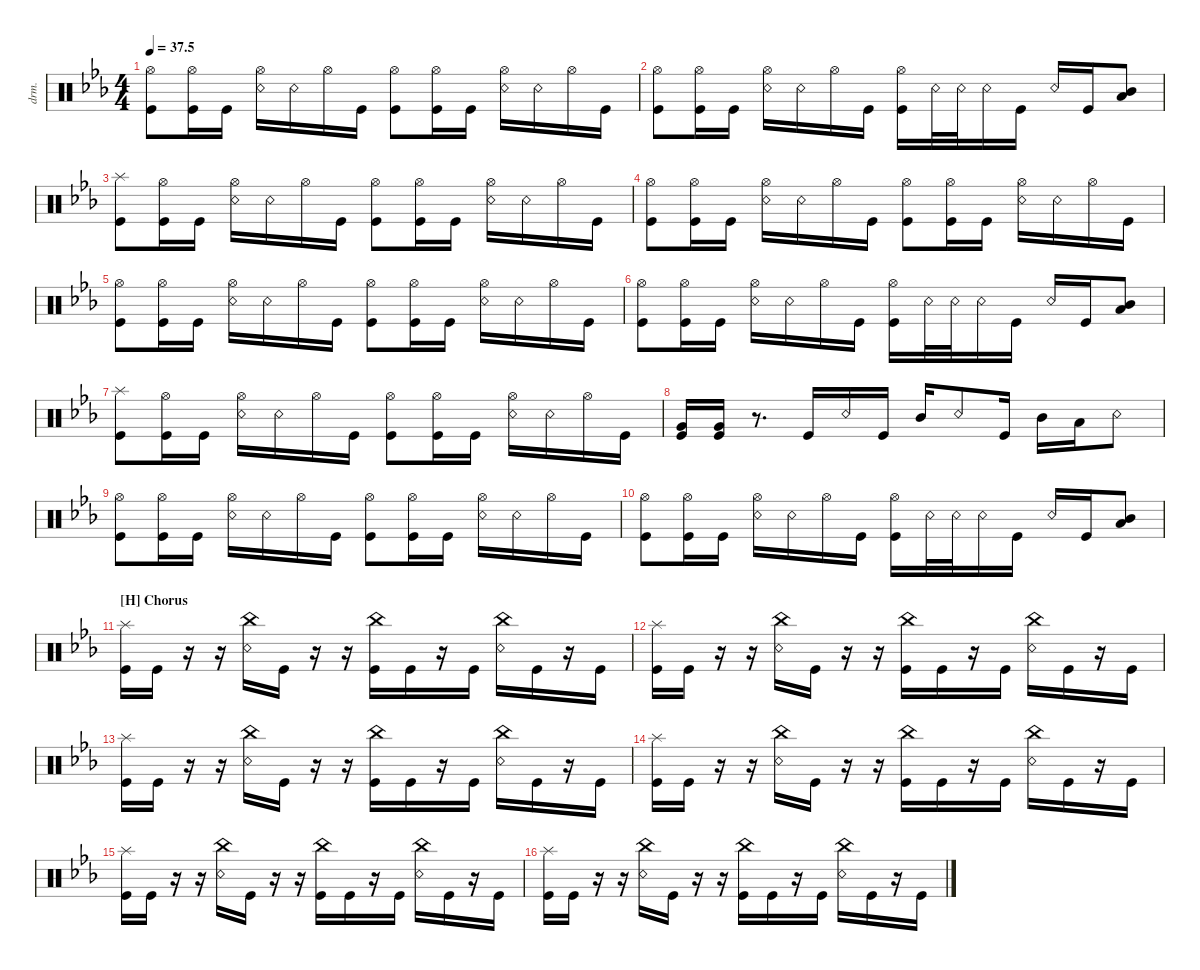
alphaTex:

\defaultSystemsLayout 4
\hideDynamics
\bracketExtendMode nobrackets
\otherSystemsTrackNameOrientation horizontal
\track ("Drumkit" "drm.") {instrument percussion}
\staff {score}
\articulation defaults
\ts (4 4)
\tempo
37.5
\accidentals auto
\clef neutral
\ottava regular
\simile none
\ks cminor
("Kick (hit)" "Hi-Hat (open)").8{dy ff} ("Kick (hit)" "Hi-Hat (open)").16 "Kick (hit)".16 ("Snare (rim shot)" "Hi-Hat (open)").16 "Snare (rim shot)".16 "Hi-Hat (open)".16 "Kick (hit)".16 ("Kick (hit)" "Hi-Hat (open)").8 ("Kick (hit)" "Hi-Hat (open)").16 "Kick (hit)".16 ("Snare (rim shot)" "Hi-Hat (open)").16 "Snare (rim shot)".16 "Hi-Hat (open)".16 "Kick (hit)".16 |
("Kick (hit)" "Hi-Hat (open)").8 ("Kick (hit)" "Hi-Hat (open)").16 "Kick (hit)".16 ("Snare (rim shot)" "Hi-Hat (open)").16 "Snare (rim shot)".16 "Hi-Hat (open)".16 "Kick (hit)".16 ("Kick (hit)" "Hi-Hat (open)").16 "Snare (rim shot)".32 "Snare (rim shot)".32 "Snare (rim shot)".16 "Kick (hit)".16 "Snare (rim shot)".16 "Kick (hit)".16 ("Mid Tom (hit)" "Low Tom (hit)").8 |
("Splash (hit)" "Kick (hit)").8 ("Kick (hit)" "Hi-Hat (open)").16 "Kick (hit)".16 ("Snare (rim shot)" "Hi-Hat (open)").16 "Snare (rim shot)".16 "Hi-Hat (open)".16 "Kick (hit)".16 ("Kick (hit)" "Hi-Hat (open)").8 ("Kick (hit)" "Hi-Hat (open)").16 "Kick (hit)".16 ("Snare (rim shot)" "Hi-Hat (open)").16 "Snare (rim shot)".16 "Hi-Hat (open)".16 "Kick (hit)".16 |
("Kick (hit)" "Hi-Hat (open)").8 ("Kick (hit)" "Hi-Hat (open)").16 "Kick (hit)".16 ("Snare (rim shot)" "Hi-Hat (open)").16 "Snare (rim shot)".16 "Hi-Hat (open)".16 "Kick (hit)".16 ("Kick (hit)" "Hi-Hat (open)").8 ("Kick (hit)" "Hi-Hat (open)").16 "Kick (hit)".16 ("Snare (rim shot)" "Hi-Hat (open)").16 "Snare (rim shot)".16 "Hi-Hat (open)".16 "Kick (hit)".16 |
("Kick (hit)" "Hi-Hat (open)").8 ("Kick (hit)" "Hi-Hat (open)").16 "Kick (hit)".16 ("Snare (rim shot)" "Hi-Hat (open)").16 "Snare (rim shot)".16 "Hi-Hat (open)".16 "Kick (hit)".16 ("Kick (hit)" "Hi-Hat (open)").8 ("Kick (hit)" "Hi-Hat (open)").16 "Kick (hit)".16 ("Snare (rim shot)" "Hi-Hat (open)").16 "Snare (rim shot)".16 "Hi-Hat (open)".16 "Kick (hit)".16 |
("Kick (hit)" "Hi-Hat (open)").8 ("Kick (hit)" "Hi-Hat (open)").16 "Kick (hit)".16 ("Snare (rim shot)" "Hi-Hat (open)").16 "Snare (rim shot)".16 "Hi-Hat (open)".16 "Kick (hit)".16 ("Kick (hit)" "Hi-Hat (open)").16 "Snare (rim shot)".32 "Snare (rim shot)".32 "Snare (rim shot)".16 "Kick (hit)".16 "Snare (rim shot)".16 "Kick (hit)".16 ("Mid Tom (hit)" "Low Tom (hit)").8 |
("Splash (hit)" "Kick (hit)").8 ("Kick (hit)" "Hi-Hat (open)").16 "Kick (hit)".16 ("Snare (rim shot)" "Hi-Hat (open)").16 "Snare (rim shot)".16 "Hi-Hat (open)".16 "Kick (hit)".16 ("Kick (hit)" "Hi-Hat (open)").8 ("Kick (hit)" "Hi-Hat (open)").16 "Kick (hit)".16 ("Snare (rim shot)" "Hi-Hat (open)").16 "Snare (rim shot)".16 "Hi-Hat (open)".16 "Kick (hit)".16 |
("Kick (hit)" "Very Low Tom (hit)").16 ("Kick (hit)" "Very Low Tom (hit)").16 r.8{d} "Kick (hit)".16 "Snare (rim shot)".16 "Kick (hit)".16 "Mid Tom (hit)".16 "Snare (rim shot)".8 "Kick (hit)".16 "Mid Tom (hit)".16 "Low Tom (hit)".16 "Snare (rim shot)".8 |
("Kick (hit)" "Hi-Hat (open)").8 ("Kick (hit)" "Hi-Hat (open)").16 "Kick (hit)".16 ("Snare (rim shot)" "Hi-Hat (open)").16 "Snare (rim shot)".16 "Hi-Hat (open)".16 "Kick (hit)".16 ("Kick (hit)" "Hi-Hat (open)").8 ("Kick (hit)" "Hi-Hat (open)").16 "Kick (hit)".16 ("Snare (rim shot)" "Hi-Hat (open)").16 "Snare (rim shot)".16 "Hi-Hat (open)".16 "Kick (hit)".16 |
("Kick (hit)" "Hi-Hat (open)").8 ("Kick (hit)" "Hi-Hat (open)").16 "Kick (hit)".16 ("Snare (rim shot)" "Hi-Hat (open)").16 "Snare (rim shot)".16 "Hi-Hat (open)".16 "Kick (hit)".16 ("Kick (hit)" "Hi-Hat (open)").16 "Snare (rim shot)".32 "Snare (rim shot)".32 "Snare (rim shot)".16 "Kick (hit)".16 "Snare (rim shot)".16 "Kick (hit)".16 ("Mid Tom (hit)" "Low Tom (hit)").8 |
\section ("H" "Chorus")
("Kick (hit)" "Splash (hit)").16 "Kick (hit)".16 r.16 r.16 ("China (hit)" "Snare (rim shot)").16 "Kick (hit)".16 r.16 r.16 ("China (hit)" "Kick (hit)").16 "Kick (hit)".16 r.16 "Kick (hit)".16 ("China (hit)" "Snare (rim shot)").16 "Kick (hit)".16 r.16 "Kick (hit)".16 |
("Kick (hit)" "Splash (hit)").16 "Kick (hit)".16 r.16 r.16 ("China (hit)" "Snare (rim shot)").16 "Kick (hit)".16 r.16 r.16 ("China (hit)" "Kick (hit)").16 "Kick (hit)".16 r.16 "Kick (hit)".16 ("China (hit)" "Snare (rim shot)").16 "Kick (hit)".16 r.16 "Kick (hit)".16 |
("Kick (hit)" "Splash (hit)").16 "Kick (hit)".16 r.16 r.16 ("China (hit)" "Snare (rim shot)").16 "Kick (hit)".16 r.16 r.16 ("China (hit)" "Kick (hit)").16 "Kick (hit)".16 r.16 "Kick (hit)".16 ("China (hit)" "Snare (rim shot)").16 "Kick (hit)".16 r.16 "Kick (hit)".16 |
("Kick (hit)" "Splash (hit)").16 "Kick (hit)".16 r.16 r.16 ("China (hit)" "Snare (rim shot)").16 "Kick (hit)".16 r.16 r.16 ("China (hit)" "Kick (hit)").16 "Kick (hit)".16 r.16 "Kick (hit)".16 ("China (hit)" "Snare (rim shot)").16 "Kick (hit)".16 r.16 "Kick (hit)".16 |
("Kick (hit)" "Splash (hit)").16 "Kick (hit)".16 r.16 r.16 ("China (hit)" "Snare (rim shot)").16 "Kick (hit)".16 r.16 r.16 ("China (hit)" "Kick (hit)").16 "Kick (hit)".16 r.16 "Kick (hit)".16 ("China (hit)" "Snare (rim shot)").16 "Kick (hit)".16 r.16 "Kick (hit)".16 |
("Kick (hit)" "Splash (hit)").16 "Kick (hit)".16 r.16 r.16 ("China (hit)" "Snare (rim shot)").16 "Kick (hit)".16 r.16 r.16 ("China (hit)" "Kick (hit)").16 "Kick (hit)".16 r.16 "Kick (hit)".16 ("China (hit)" "Snare (rim shot)").16 "Kick (hit)".16 r.16 "Kick (hit)".16
